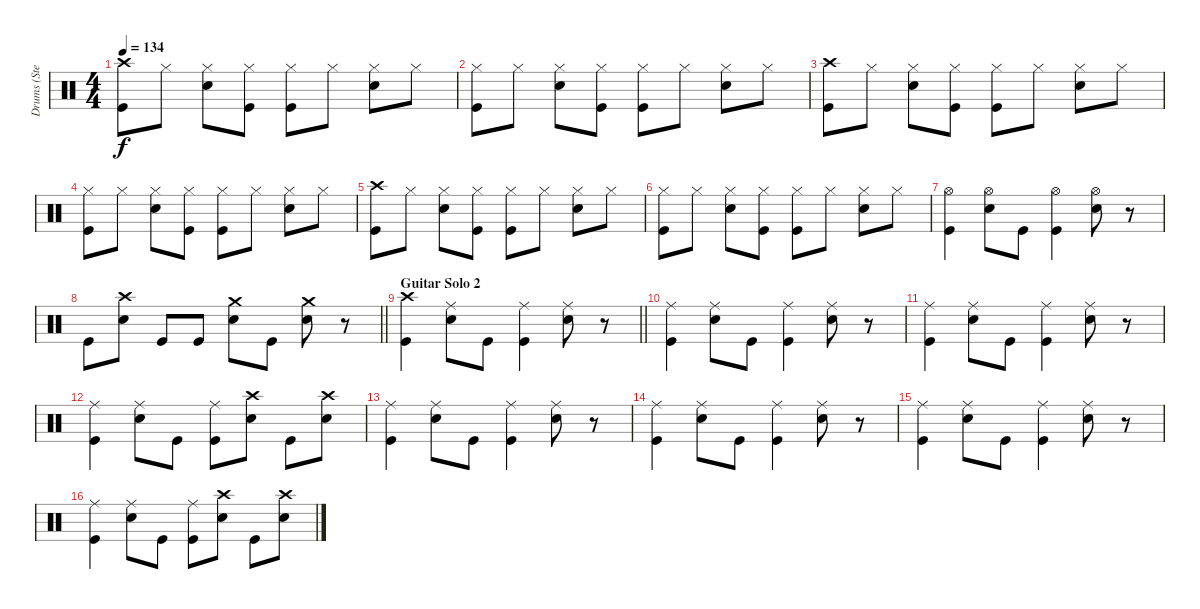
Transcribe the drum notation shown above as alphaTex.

\track ("Drums (Steven Adler)" "Drums (Ste") {instrument percussion}
\staff {score}
\articulation defaults
\ts (4 4)
\tempo 134
\clef neutral
\ks c
("Crash high (hit)" "Kick (hit)").8{dy f} "Hi-Hat (closed)".8 ("Hi-Hat (closed)" "Snare (hit) 2").8 ("Hi-Hat (closed)" "Kick (hit)").8 ("Hi-Hat (closed)" "Kick (hit)").8 "Hi-Hat (closed)".8 ("Hi-Hat (closed)" "Snare (hit) 2").8 "Hi-Hat (closed)".8 |
("Hi-Hat (closed)" "Kick (hit)").8 "Hi-Hat (closed)".8 ("Hi-Hat (closed)" "Snare (hit) 2").8 ("Hi-Hat (closed)" "Kick (hit)").8 ("Hi-Hat (closed)" "Kick (hit)").8 "Hi-Hat (closed)".8 ("Hi-Hat (closed)" "Snare (hit) 2").8 "Hi-Hat (closed)".8 |
("Crash high (hit)" "Kick (hit)").8 "Hi-Hat (closed)".8 ("Hi-Hat (closed)" "Snare (hit) 2").8 ("Hi-Hat (closed)" "Kick (hit)").8 ("Hi-Hat (closed)" "Kick (hit)").8 "Hi-Hat (closed)".8 ("Hi-Hat (closed)" "Snare (hit) 2").8 "Hi-Hat (closed)".8 |
("Hi-Hat (closed)" "Kick (hit)").8 "Hi-Hat (closed)".8 ("Hi-Hat (closed)" "Snare (hit) 2").8 ("Hi-Hat (closed)" "Kick (hit)").8 ("Hi-Hat (closed)" "Kick (hit)").8 "Hi-Hat (closed)".8 ("Hi-Hat (closed)" "Snare (hit) 2").8 "Hi-Hat (closed)".8 |
("Crash high (hit)" "Kick (hit)").8 "Hi-Hat (closed)".8 ("Hi-Hat (closed)" "Snare (hit) 2").8 ("Hi-Hat (closed)" "Kick (hit)").8 ("Hi-Hat (closed)" "Kick (hit)").8 "Hi-Hat (closed)".8 ("Hi-Hat (closed)" "Snare (hit) 2").8 "Hi-Hat (closed)".8 |
("Hi-Hat (closed)" "Kick (hit)").8 "Hi-Hat (closed)".8 ("Hi-Hat (closed)" "Snare (hit) 2").8 ("Hi-Hat (closed)" "Kick (hit)").8 ("Hi-Hat (closed)" "Kick (hit)").8 "Hi-Hat (closed)".8 ("Hi-Hat (closed)" "Snare (hit) 2").8 "Hi-Hat (closed)".8 |
("Hi-Hat (open)" "Kick (hit)").4 ("Hi-Hat (open)" "Snare (hit) 2").8 "Kick (hit)".8 ("Hi-Hat (open)" "Kick (hit)").4 ("Hi-Hat (open)" "Snare (hit) 2").8 r.8 |
\barLineRight lightlight "Kick (hit)".8
("Crash high (hit)" "Snare (hit) 2").8 "Kick (hit)".8 "Kick (hit)".8 ("Crash medium (hit)" "Snare (hit) 2").8 "Kick (hit)".8 ("Crash medium (hit)" "Snare (hit) 2").8 r.8 |
\section ("" "Guitar Solo 2")
\barLineRight lightlight
("Crash high (hit)" "Kick (hit)").4 ("Ride (middle)" "Snare (hit) 2").8 "Kick (hit)".8 ("Ride (middle)" "Kick (hit)").4 ("Ride (middle)" "Snare (hit) 2").8 r.8 |
("Ride (middle)" "Kick (hit)").4 ("Ride (middle)" "Snare (hit) 2").8 "Kick (hit)".8 ("Ride (middle)" "Kick (hit)").4 ("Ride (middle)" "Snare (hit) 2").8 r.8 |
("Ride (middle)" "Kick (hit)").4 ("Ride (middle)" "Snare (hit) 2").8 "Kick (hit)".8 ("Ride (middle)" "Kick (hit)").4 ("Ride (middle)" "Snare (hit) 2").8 r.8 |
("Ride (middle)" "Kick (hit)").4 ("Ride (middle)" "Snare (hit) 2").8 "Kick (hit)".8 ("Ride (middle)" "Kick (hit)").8 ("Crash high (hit)" "Snare (hit) 2").8 "Kick (hit)".8 ("Crash high (hit)" "Snare (hit) 2").8 |
("Ride (middle)" "Kick (hit)").4 ("Ride (middle)" "Snare (hit) 2").8 "Kick (hit)".8 ("Ride (middle)" "Kick (hit)").4 ("Ride (middle)" "Snare (hit) 2").8 r.8 |
("Ride (middle)" "Kick (hit)").4 ("Ride (middle)" "Snare (hit) 2").8 "Kick (hit)".8 ("Ride (middle)" "Kick (hit)").4 ("Ride (middle)" "Snare (hit) 2").8 r.8 |
("Ride (middle)" "Kick (hit)").4 ("Ride (middle)" "Snare (hit) 2").8 "Kick (hit)".8 ("Ride (middle)" "Kick (hit)").4 ("Ride (middle)" "Snare (hit) 2").8 r.8 |
("Ride (middle)" "Kick (hit)").4 ("Ride (middle)" "Snare (hit) 2").8 "Kick (hit)".8 ("Ride (middle)" "Kick (hit)").8 ("Crash high (hit)" "Snare (hit) 2").8 "Kick (hit)".8 ("Crash high (hit)" "Snare (hit) 2").8
